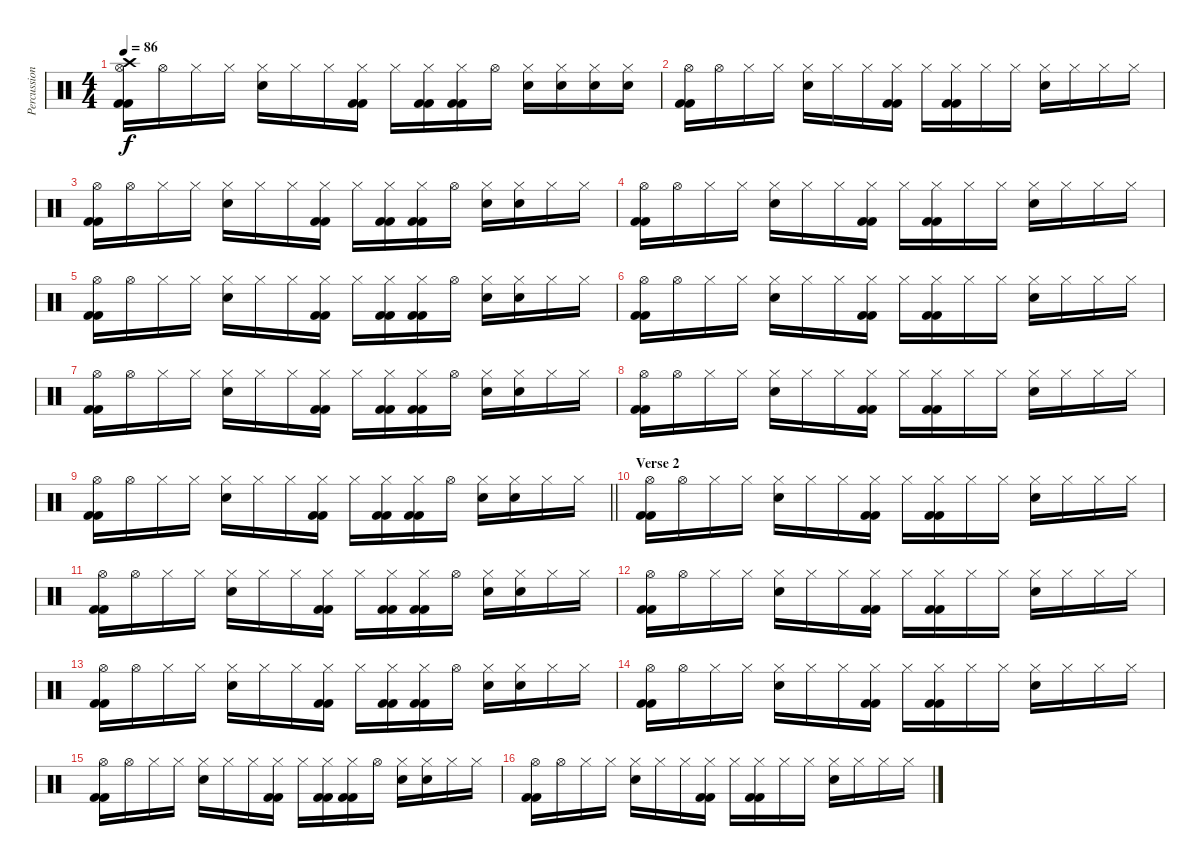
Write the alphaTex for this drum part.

\track ("Percussion" "Percussion") {instrument percussion}
\staff {score}
\articulation defaults
\ts (4 4)
\tempo 86
\clef neutral
\ks c
("Hi-Hat (open)" "Crash high (hit)" "Kick (hit) 2" "Kick (hit) 2").16{dy f} "Hi-Hat (open)".16 "Hi-Hat (closed)".16 "Hi-Hat (closed)".16 ("Hi-Hat (closed)" "Electric Snare (hit)").16 "Hi-Hat (closed)".16 "Hi-Hat (closed)".16 ("Hi-Hat (closed)" "Kick (hit) 2" "Kick (hit) 2").16 "Hi-Hat (closed)".16 ("Hi-Hat (closed)" "Kick (hit) 2" "Kick (hit) 2").16 ("Hi-Hat (closed)" "Kick (hit) 2" "Kick (hit) 2").16 "Hi-Hat (open)".16 ("Hi-Hat (closed)" "Electric Snare (hit)").16 ("Hi-Hat (closed)" "Electric Snare (hit)").16 ("Hi-Hat (closed)" "Electric Snare (hit)").16 ("Hi-Hat (closed)" "Electric Snare (hit)").16 |
("Hi-Hat (open)" "Kick (hit) 2" "Kick (hit) 2").16 "Hi-Hat (open)".16 "Hi-Hat (closed)".16 "Hi-Hat (closed)".16 ("Hi-Hat (closed)" "Electric Snare (hit)").16 "Hi-Hat (closed)".16 "Hi-Hat (closed)".16 ("Hi-Hat (closed)" "Kick (hit) 2" "Kick (hit) 2").16 "Hi-Hat (closed)".16 ("Hi-Hat (closed)" "Kick (hit) 2" "Kick (hit) 2").16 "Hi-Hat (closed)".16 "Hi-Hat (closed)".16 ("Hi-Hat (closed)" "Electric Snare (hit)").16 "Hi-Hat (closed)".16 "Hi-Hat (closed)".16 "Hi-Hat (closed)".16 |
("Hi-Hat (open)" "Kick (hit) 2" "Kick (hit) 2").16 "Hi-Hat (open)".16 "Hi-Hat (closed)".16 "Hi-Hat (closed)".16 ("Hi-Hat (closed)" "Electric Snare (hit)").16 "Hi-Hat (closed)".16 "Hi-Hat (closed)".16 ("Hi-Hat (closed)" "Kick (hit) 2" "Kick (hit) 2").16 "Hi-Hat (closed)".16 ("Hi-Hat (closed)" "Kick (hit) 2" "Kick (hit) 2").16 ("Hi-Hat (closed)" "Kick (hit) 2" "Kick (hit) 2").16 "Hi-Hat (open)".16 ("Hi-Hat (closed)" "Electric Snare (hit)").16 ("Hi-Hat (closed)" "Electric Snare (hit)").16 "Hi-Hat (closed)".16 "Hi-Hat (closed)".16 |
("Hi-Hat (open)" "Kick (hit) 2" "Kick (hit) 2").16 "Hi-Hat (open)".16 "Hi-Hat (closed)".16 "Hi-Hat (closed)".16 ("Hi-Hat (closed)" "Electric Snare (hit)").16 "Hi-Hat (closed)".16 "Hi-Hat (closed)".16 ("Hi-Hat (closed)" "Kick (hit) 2" "Kick (hit) 2").16 "Hi-Hat (closed)".16 ("Hi-Hat (closed)" "Kick (hit) 2" "Kick (hit) 2").16 "Hi-Hat (closed)".16 "Hi-Hat (closed)".16 ("Hi-Hat (closed)" "Electric Snare (hit)").16 "Hi-Hat (closed)".16 "Hi-Hat (closed)".16 "Hi-Hat (closed)".16 |
("Hi-Hat (open)" "Kick (hit) 2" "Kick (hit) 2").16 "Hi-Hat (open)".16 "Hi-Hat (closed)".16 "Hi-Hat (closed)".16 ("Hi-Hat (closed)" "Electric Snare (hit)").16 "Hi-Hat (closed)".16 "Hi-Hat (closed)".16 ("Hi-Hat (closed)" "Kick (hit) 2" "Kick (hit) 2").16 "Hi-Hat (closed)".16 ("Hi-Hat (closed)" "Kick (hit) 2" "Kick (hit) 2").16 ("Hi-Hat (closed)" "Kick (hit) 2" "Kick (hit) 2").16 "Hi-Hat (open)".16 ("Hi-Hat (closed)" "Electric Snare (hit)").16 ("Hi-Hat (closed)" "Electric Snare (hit)").16 "Hi-Hat (closed)".16 "Hi-Hat (closed)".16 |
("Hi-Hat (open)" "Kick (hit) 2" "Kick (hit) 2").16 "Hi-Hat (open)".16 "Hi-Hat (closed)".16 "Hi-Hat (closed)".16 ("Hi-Hat (closed)" "Electric Snare (hit)").16 "Hi-Hat (closed)".16 "Hi-Hat (closed)".16 ("Hi-Hat (closed)" "Kick (hit) 2" "Kick (hit) 2").16 "Hi-Hat (closed)".16 ("Hi-Hat (closed)" "Kick (hit) 2" "Kick (hit) 2").16 "Hi-Hat (closed)".16 "Hi-Hat (closed)".16 ("Hi-Hat (closed)" "Electric Snare (hit)").16 "Hi-Hat (closed)".16 "Hi-Hat (closed)".16 "Hi-Hat (closed)".16 |
("Hi-Hat (open)" "Kick (hit) 2" "Kick (hit) 2").16 "Hi-Hat (open)".16 "Hi-Hat (closed)".16 "Hi-Hat (closed)".16 ("Hi-Hat (closed)" "Electric Snare (hit)").16 "Hi-Hat (closed)".16 "Hi-Hat (closed)".16 ("Hi-Hat (closed)" "Kick (hit) 2" "Kick (hit) 2").16 "Hi-Hat (closed)".16 ("Hi-Hat (closed)" "Kick (hit) 2" "Kick (hit) 2").16 ("Hi-Hat (closed)" "Kick (hit) 2" "Kick (hit) 2").16 "Hi-Hat (open)".16 ("Hi-Hat (closed)" "Electric Snare (hit)").16 ("Hi-Hat (closed)" "Electric Snare (hit)").16 "Hi-Hat (closed)".16 "Hi-Hat (closed)".16 |
("Hi-Hat (open)" "Kick (hit) 2" "Kick (hit) 2").16 "Hi-Hat (open)".16 "Hi-Hat (closed)".16 "Hi-Hat (closed)".16 ("Hi-Hat (closed)" "Electric Snare (hit)").16 "Hi-Hat (closed)".16 "Hi-Hat (closed)".16 ("Hi-Hat (closed)" "Kick (hit) 2" "Kick (hit) 2").16 "Hi-Hat (closed)".16 ("Hi-Hat (closed)" "Kick (hit) 2" "Kick (hit) 2").16 "Hi-Hat (closed)".16 "Hi-Hat (closed)".16 ("Hi-Hat (closed)" "Electric Snare (hit)").16 "Hi-Hat (closed)".16 "Hi-Hat (closed)".16 "Hi-Hat (closed)".16 |
\barLineRight lightlight
("Hi-Hat (open)" "Kick (hit) 2" "Kick (hit) 2").16 "Hi-Hat (open)".16 "Hi-Hat (closed)".16 "Hi-Hat (closed)".16 ("Hi-Hat (closed)" "Electric Snare (hit)").16 "Hi-Hat (closed)".16 "Hi-Hat (closed)".16 ("Hi-Hat (closed)" "Kick (hit) 2" "Kick (hit) 2").16 "Hi-Hat (closed)".16 ("Hi-Hat (closed)" "Kick (hit) 2" "Kick (hit) 2").16 ("Hi-Hat (closed)" "Kick (hit) 2" "Kick (hit) 2").16 "Hi-Hat (open)".16 ("Hi-Hat (closed)" "Electric Snare (hit)").16 ("Hi-Hat (closed)" "Electric Snare (hit)").16 "Hi-Hat (closed)".16 "Hi-Hat (closed)".16 |
\section ("" "Verse 2")
("Hi-Hat (open)" "Kick (hit) 2" "Kick (hit) 2").16 "Hi-Hat (open)".16 "Hi-Hat (closed)".16 "Hi-Hat (closed)".16 ("Hi-Hat (closed)" "Electric Snare (hit)").16 "Hi-Hat (closed)".16 "Hi-Hat (closed)".16 ("Hi-Hat (closed)" "Kick (hit) 2" "Kick (hit) 2").16 "Hi-Hat (closed)".16 ("Hi-Hat (closed)" "Kick (hit) 2" "Kick (hit) 2").16 "Hi-Hat (closed)".16 "Hi-Hat (closed)".16 ("Hi-Hat (closed)" "Electric Snare (hit)").16 "Hi-Hat (closed)".16 "Hi-Hat (closed)".16 "Hi-Hat (closed)".16 |
("Hi-Hat (open)" "Kick (hit) 2" "Kick (hit) 2").16 "Hi-Hat (open)".16 "Hi-Hat (closed)".16 "Hi-Hat (closed)".16 ("Hi-Hat (closed)" "Electric Snare (hit)").16 "Hi-Hat (closed)".16 "Hi-Hat (closed)".16 ("Hi-Hat (closed)" "Kick (hit) 2" "Kick (hit) 2").16 "Hi-Hat (closed)".16 ("Hi-Hat (closed)" "Kick (hit) 2" "Kick (hit) 2").16 ("Hi-Hat (closed)" "Kick (hit) 2" "Kick (hit) 2").16 "Hi-Hat (open)".16 ("Hi-Hat (closed)" "Electric Snare (hit)").16 ("Hi-Hat (closed)" "Electric Snare (hit)").16 "Hi-Hat (closed)".16 "Hi-Hat (closed)".16 |
("Hi-Hat (open)" "Kick (hit) 2" "Kick (hit) 2").16 "Hi-Hat (open)".16 "Hi-Hat (closed)".16 "Hi-Hat (closed)".16 ("Hi-Hat (closed)" "Electric Snare (hit)").16 "Hi-Hat (closed)".16 "Hi-Hat (closed)".16 ("Hi-Hat (closed)" "Kick (hit) 2" "Kick (hit) 2").16 "Hi-Hat (closed)".16 ("Hi-Hat (closed)" "Kick (hit) 2" "Kick (hit) 2").16 "Hi-Hat (closed)".16 "Hi-Hat (closed)".16 ("Hi-Hat (closed)" "Electric Snare (hit)").16 "Hi-Hat (closed)".16 "Hi-Hat (closed)".16 "Hi-Hat (closed)".16 |
("Hi-Hat (open)" "Kick (hit) 2" "Kick (hit) 2").16 "Hi-Hat (open)".16 "Hi-Hat (closed)".16 "Hi-Hat (closed)".16 ("Hi-Hat (closed)" "Electric Snare (hit)").16 "Hi-Hat (closed)".16 "Hi-Hat (closed)".16 ("Hi-Hat (closed)" "Kick (hit) 2" "Kick (hit) 2").16 "Hi-Hat (closed)".16 ("Hi-Hat (closed)" "Kick (hit) 2" "Kick (hit) 2").16 ("Hi-Hat (closed)" "Kick (hit) 2" "Kick (hit) 2").16 "Hi-Hat (open)".16 ("Hi-Hat (closed)" "Electric Snare (hit)").16 ("Hi-Hat (closed)" "Electric Snare (hit)").16 "Hi-Hat (closed)".16 "Hi-Hat (closed)".16 |
("Hi-Hat (open)" "Kick (hit) 2" "Kick (hit) 2").16 "Hi-Hat (open)".16 "Hi-Hat (closed)".16 "Hi-Hat (closed)".16 ("Hi-Hat (closed)" "Electric Snare (hit)").16 "Hi-Hat (closed)".16 "Hi-Hat (closed)".16 ("Hi-Hat (closed)" "Kick (hit) 2" "Kick (hit) 2").16 "Hi-Hat (closed)".16 ("Hi-Hat (closed)" "Kick (hit) 2" "Kick (hit) 2").16 "Hi-Hat (closed)".16 "Hi-Hat (closed)".16 ("Hi-Hat (closed)" "Electric Snare (hit)").16 "Hi-Hat (closed)".16 "Hi-Hat (closed)".16 "Hi-Hat (closed)".16 |
("Hi-Hat (open)" "Kick (hit) 2" "Kick (hit) 2").16 "Hi-Hat (open)".16 "Hi-Hat (closed)".16 "Hi-Hat (closed)".16 ("Hi-Hat (closed)" "Electric Snare (hit)").16 "Hi-Hat (closed)".16 "Hi-Hat (closed)".16 ("Hi-Hat (closed)" "Kick (hit) 2" "Kick (hit) 2").16 "Hi-Hat (closed)".16 ("Hi-Hat (closed)" "Kick (hit) 2" "Kick (hit) 2").16 ("Hi-Hat (closed)" "Kick (hit) 2" "Kick (hit) 2").16 "Hi-Hat (open)".16 ("Hi-Hat (closed)" "Electric Snare (hit)").16 ("Hi-Hat (closed)" "Electric Snare (hit)").16 "Hi-Hat (closed)".16 "Hi-Hat (closed)".16 |
("Hi-Hat (open)" "Kick (hit) 2" "Kick (hit) 2").16 "Hi-Hat (open)".16 "Hi-Hat (closed)".16 "Hi-Hat (closed)".16 ("Hi-Hat (closed)" "Electric Snare (hit)").16 "Hi-Hat (closed)".16 "Hi-Hat (closed)".16 ("Hi-Hat (closed)" "Kick (hit) 2" "Kick (hit) 2").16 "Hi-Hat (closed)".16 ("Hi-Hat (closed)" "Kick (hit) 2" "Kick (hit) 2").16 "Hi-Hat (closed)".16 "Hi-Hat (closed)".16 ("Hi-Hat (closed)" "Electric Snare (hit)").16 "Hi-Hat (closed)".16 "Hi-Hat (closed)".16 "Hi-Hat (closed)".16
